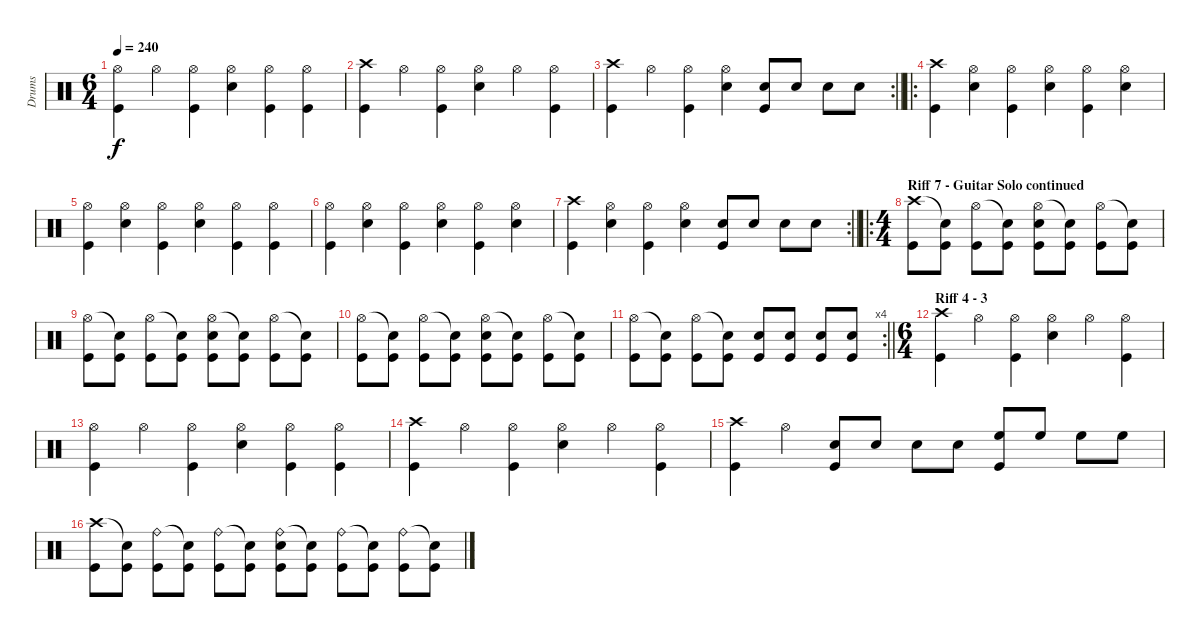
\track ("Drums " "Drums ") {instrument percussion}
\staff {score}
\articulation defaults
\ts (6 4)
\tempo 240
\clef neutral
\ks c
("Hi-Hat (open)" "Kick (hit)").4{dy f} "Hi-Hat (open)".4 ("Hi-Hat (open)" "Kick (hit)").4 ("Hi-Hat (open)" "Electric Snare (hit)").4 ("Hi-Hat (open)" "Kick (hit)").4 ("Hi-Hat (open)" "Kick (hit)").4 |
("Crash high (hit)" "Kick (hit)").4 "Hi-Hat (open)".4 ("Hi-Hat (open)" "Kick (hit)").4 ("Hi-Hat (open)" "Electric Snare (hit)").4 "Hi-Hat (open)".4 ("Hi-Hat (open)" "Kick (hit)").4 |
\rc 2
\barLineRight lightlight
("Crash high (hit)" "Kick (hit)").4 "Hi-Hat (open)".4 ("Hi-Hat (open)" "Kick (hit)").4 ("Hi-Hat (open)" "Electric Snare (hit)").4 ("Electric Snare (hit)" "Kick (hit)").8 "Electric Snare (hit)".8 "Electric Snare (hit)".8 "Electric Snare (hit)".8 |
\ro
("Crash high (hit)" "Kick (hit)").4 ("Hi-Hat (open)" "Electric Snare (hit)").4 ("Hi-Hat (open)" "Kick (hit)").4 ("Hi-Hat (open)" "Electric Snare (hit)").4 ("Hi-Hat (open)" "Kick (hit)").4 ("Hi-Hat (open)" "Electric Snare (hit)").4 |
("Hi-Hat (open)" "Kick (hit)").4 ("Hi-Hat (open)" "Electric Snare (hit)").4 ("Hi-Hat (open)" "Kick (hit)").4 ("Hi-Hat (open)" "Electric Snare (hit)").4 ("Hi-Hat (open)" "Kick (hit)").4 ("Hi-Hat (open)" "Kick (hit)").4 |
("Hi-Hat (open)" "Kick (hit)").4 ("Hi-Hat (open)" "Electric Snare (hit)").4 ("Hi-Hat (open)" "Kick (hit)").4 ("Hi-Hat (open)" "Electric Snare (hit)").4 ("Hi-Hat (open)" "Kick (hit)").4 ("Hi-Hat (open)" "Electric Snare (hit)").4 |
\rc 2
\barLineRight lightlight
("Crash high (hit)" "Kick (hit)").4 ("Hi-Hat (open)" "Electric Snare (hit)").4 ("Hi-Hat (open)" "Kick (hit)").4 ("Hi-Hat (open)" "Electric Snare (hit)").4 ("Electric Snare (hit)" "Kick (hit)").8 "Electric Snare (hit)".8 "Electric Snare (hit)".8 "Electric Snare (hit)".8 |
\ro
\ts (4 4)
\section ("" "Riff 7 - Guitar Solo continued")
("Crash high (hit)" "Kick (hit)").8 ("Snare (hit)"{t} "Kick (hit)").8 ("Hi-Hat (open)" "Kick (hit)").8 ("Snare (hit)"{t} "Kick (hit)").8 ("Hi-Hat (open)" "Electric Snare (hit)" "Kick (hit)").8 ("Snare (hit)"{t} "Kick (hit)").8 ("Hi-Hat (open)" "Kick (hit)").8 ("Snare (hit)"{t} "Kick (hit)").8 |
("Hi-Hat (open)" "Kick (hit)").8 ("Snare (hit)"{t} "Kick (hit)").8 ("Hi-Hat (open)" "Kick (hit)").8 ("Snare (hit)"{t} "Kick (hit)").8 ("Hi-Hat (open)" "Electric Snare (hit)" "Kick (hit)").8 ("Snare (hit)"{t} "Kick (hit)").8 ("Hi-Hat (open)" "Kick (hit)").8 ("Snare (hit)"{t} "Kick (hit)").8 |
("Hi-Hat (open)" "Kick (hit)").8 ("Snare (hit)"{t} "Kick (hit)").8 ("Hi-Hat (open)" "Kick (hit)").8 ("Snare (hit)"{t} "Kick (hit)").8 ("Hi-Hat (open)" "Electric Snare (hit)" "Kick (hit)").8 ("Snare (hit)"{t} "Kick (hit)").8 ("Hi-Hat (open)" "Kick (hit)").8 ("Snare (hit)"{t} "Kick (hit)").8 |
\rc 4
\barLineRight lightlight
("Hi-Hat (open)" "Kick (hit)").8 ("Snare (hit)"{t} "Kick (hit)").8 ("Hi-Hat (open)" "Kick (hit)").8 ("Snare (hit)"{t} "Kick (hit)").8 ("Electric Snare (hit)" "Kick (hit)").8 ("Electric Snare (hit)" "Kick (hit)").8 ("Electric Snare (hit)" "Kick (hit)").8 ("Electric Snare (hit)" "Kick (hit)").8 |
\ts (6 4)
\section ("" "Riff 4 - 3")
("Crash high (hit)" "Kick (hit)").4 "Hi-Hat (open)".4 ("Hi-Hat (open)" "Kick (hit)").4 ("Hi-Hat (open)" "Electric Snare (hit)").4 "Hi-Hat (open)".4 ("Hi-Hat (open)" "Kick (hit)").4 |
("Hi-Hat (open)" "Kick (hit)").4 "Hi-Hat (open)".4 ("Hi-Hat (open)" "Kick (hit)").4 ("Hi-Hat (open)" "Electric Snare (hit)").4 ("Hi-Hat (open)" "Kick (hit)").4 ("Hi-Hat (open)" "Kick (hit)").4 |
("Crash high (hit)" "Kick (hit)").4 "Hi-Hat (open)".4 ("Hi-Hat (open)" "Kick (hit)").4 ("Hi-Hat (open)" "Electric Snare (hit)").4 "Hi-Hat (open)".4 ("Hi-Hat (open)" "Kick (hit)").4 |
("Crash high (hit)" "Kick (hit)").4 "Hi-Hat (open)".4 ("Electric Snare (hit)" "Kick (hit)").8 "Electric Snare (hit)".8 "Electric Snare (hit)".8 "Electric Snare (hit)".8 ("High Floor Tom (hit)" "Kick (hit)").8 "High Floor Tom (hit)".8 "High Floor Tom (hit)".8 "High Floor Tom (hit)".8 |
("Crash high (hit)" "Kick (hit)").8 ("Snare (hit)"{t} "Kick (hit)").8 ("Ride (bell)" "Kick (hit)").8 ("Snare (hit)"{t} "Kick (hit)").8 ("Ride (bell)" "Kick (hit)").8 ("Snare (hit)"{t} "Kick (hit)").8 ("Ride (bell)" "Electric Snare (hit)" "Kick (hit)").8 ("Snare (hit)"{t} "Kick (hit)").8 ("Ride (bell)" "Kick (hit)").8 ("Snare (hit)"{t} "Kick (hit)").8 ("Ride (bell)" "Kick (hit)").8 ("Snare (hit)"{t} "Kick (hit)").8
